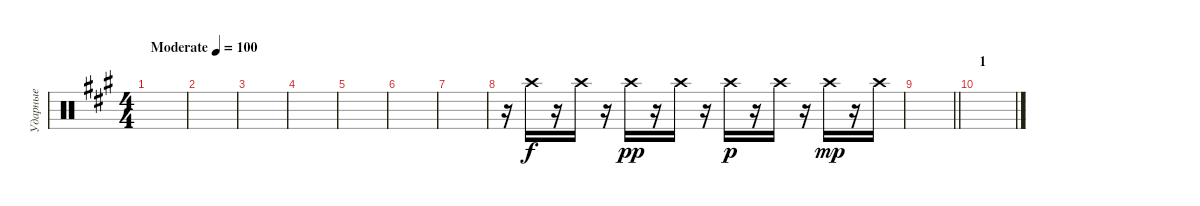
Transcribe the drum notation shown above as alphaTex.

\track ("Ударные" "Ударные") {instrument percussion}
\staff {score}
\articulation defaults
\ts (4 4)
\tempo (100 "Moderate")
\clef neutral
\ks f#minor
|
|
|
|
|
|
|
r.16 "Crash high (hit)".16 r.16 "Crash high (hit)".16 r.16 "Crash high (hit)".16{dy pp} r.16 "Crash high (hit)".16 r.16 "Crash high (hit)".16{dy p} r.16 "Crash high (hit)".16 r.16 "Crash high (hit)".16{dy mp} r.16 "Crash high (hit)".16 |
\barLineRight lightlight
|
\section ("" "1")
